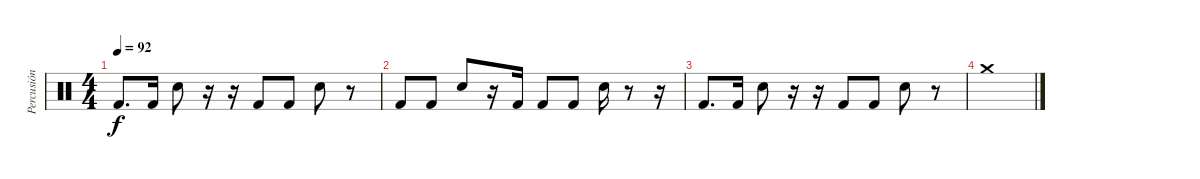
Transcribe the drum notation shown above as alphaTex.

\track ("Percusión" "Percusión") {instrument percussion}
\staff {score}
\articulation defaults
\ts (4 4)
\tempo 92
\clef neutral
\ks c "Kick (hit) 2".8{d dy f} "Kick (hit) 2".16 "Snare (hit) 2".8
r.16 r.16 "Kick (hit) 2".8 "Kick (hit) 2".8 "Snare (hit) 2".8 r.8 |
"Kick (hit) 2".8 "Kick (hit) 2".8 "Snare (hit) 2".8 r.16 "Kick (hit) 2".16 "Kick (hit) 2".8 "Kick (hit) 2".8 "Snare (hit) 2".16 r.8 r.16 |
"Kick (hit) 2".8{d} "Kick (hit) 2".16 "Snare (hit) 2".8 r.16 r.16 "Kick (hit) 2".8 "Kick (hit) 2".8 "Snare (hit) 2".8 r.8 |
"Crash medium (hit)".1
